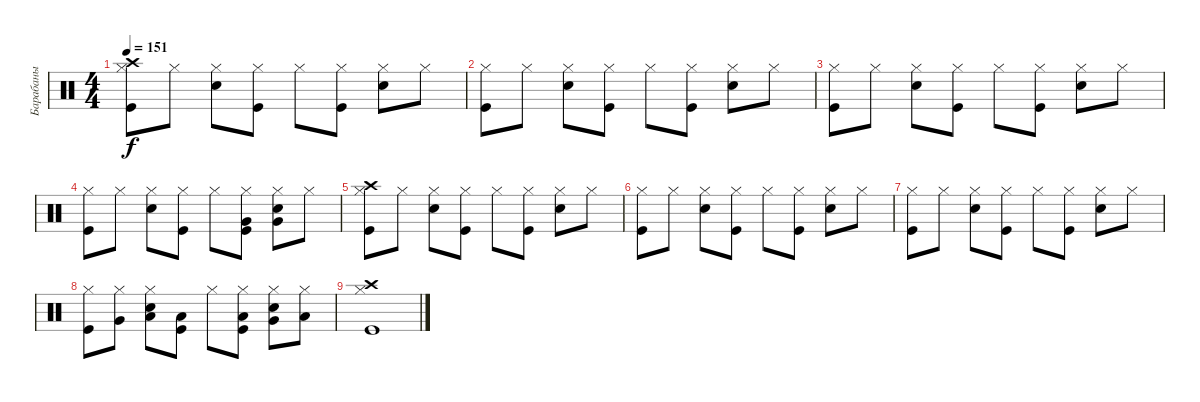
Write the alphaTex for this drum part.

\track ("Барабаны" "Барабаны") {instrument percussion}
\staff {score}
\articulation defaults
\ts (4 4)
\tempo 151
\clef neutral
\ks c
("Kick (hit)" "Hi-Hat (closed)" "Crash high (hit)").8{dy f} "Hi-Hat (closed)".8 ("Snare (hit) 2" "Hi-Hat (closed)").8 ("Kick (hit)" "Hi-Hat (closed)").8 "Hi-Hat (closed)".8 ("Kick (hit)" "Hi-Hat (closed)").8 ("Snare (hit) 2" "Hi-Hat (closed)").8 "Hi-Hat (closed)".8 |
("Kick (hit)" "Hi-Hat (closed)").8 "Hi-Hat (closed)".8 ("Snare (hit) 2" "Hi-Hat (closed)").8 ("Kick (hit)" "Hi-Hat (closed)").8 "Hi-Hat (closed)".8 ("Kick (hit)" "Hi-Hat (closed)").8 ("Snare (hit) 2" "Hi-Hat (closed)").8 "Hi-Hat (closed)".8 |
("Kick (hit)" "Hi-Hat (closed)").8 "Hi-Hat (closed)".8 ("Snare (hit) 2" "Hi-Hat (closed)").8 ("Kick (hit)" "Hi-Hat (closed)").8 "Hi-Hat (closed)".8 ("Kick (hit)" "Hi-Hat (closed)").8 ("Snare (hit) 2" "Hi-Hat (closed)").8 "Hi-Hat (closed)".8 |
("Kick (hit)" "Hi-Hat (closed)").8 "Hi-Hat (closed)".8 ("Snare (hit) 2" "Hi-Hat (closed)").8 ("Kick (hit)" "Hi-Hat (closed)").8 "Hi-Hat (closed)".8 ("Kick (hit)" "Hi-Hat (closed)" "Very Low Tom (hit)").8 ("Snare (hit) 2" "Hi-Hat (closed)" "Very Low Tom (hit)").8 "Hi-Hat (closed)".8 |
("Kick (hit)" "Hi-Hat (closed)" "Crash high (hit)").8 "Hi-Hat (closed)".8 ("Snare (hit) 2" "Hi-Hat (closed)").8 ("Kick (hit)" "Hi-Hat (closed)").8 "Hi-Hat (closed)".8 ("Kick (hit)" "Hi-Hat (closed)").8 ("Snare (hit) 2" "Hi-Hat (closed)").8 "Hi-Hat (closed)".8 |
("Kick (hit)" "Hi-Hat (closed)").8 "Hi-Hat (closed)".8 ("Snare (hit) 2" "Hi-Hat (closed)").8 ("Kick (hit)" "Hi-Hat (closed)").8 "Hi-Hat (closed)".8 ("Kick (hit)" "Hi-Hat (closed)").8 ("Snare (hit) 2" "Hi-Hat (closed)").8 "Hi-Hat (closed)".8 |
("Kick (hit)" "Hi-Hat (closed)").8 "Hi-Hat (closed)".8 ("Snare (hit) 2" "Hi-Hat (closed)").8 ("Kick (hit)" "Hi-Hat (closed)").8 "Hi-Hat (closed)".8 ("Kick (hit)" "Hi-Hat (closed)").8 ("Snare (hit) 2" "Hi-Hat (closed)").8 "Hi-Hat (closed)".8 |
("Kick (hit)" "Hi-Hat (closed)").8 ("Hi-Hat (closed)" "Very Low Tom (hit)").8 ("Snare (hit) 2" "Hi-Hat (closed)" "Low Tom (hit)").8 ("Kick (hit)" "Low Tom (hit)").8 "Hi-Hat (closed)".8 ("Kick (hit)" "Hi-Hat (closed)" "Low Tom (hit)").8 ("Snare (hit) 2" "Hi-Hat (closed)" "Very Low Tom (hit)").8 ("Hi-Hat (closed)" "Low Floor Tom (hit)").8 |
("Kick (hit)" "Hi-Hat (closed)" "Crash high (hit)").1
